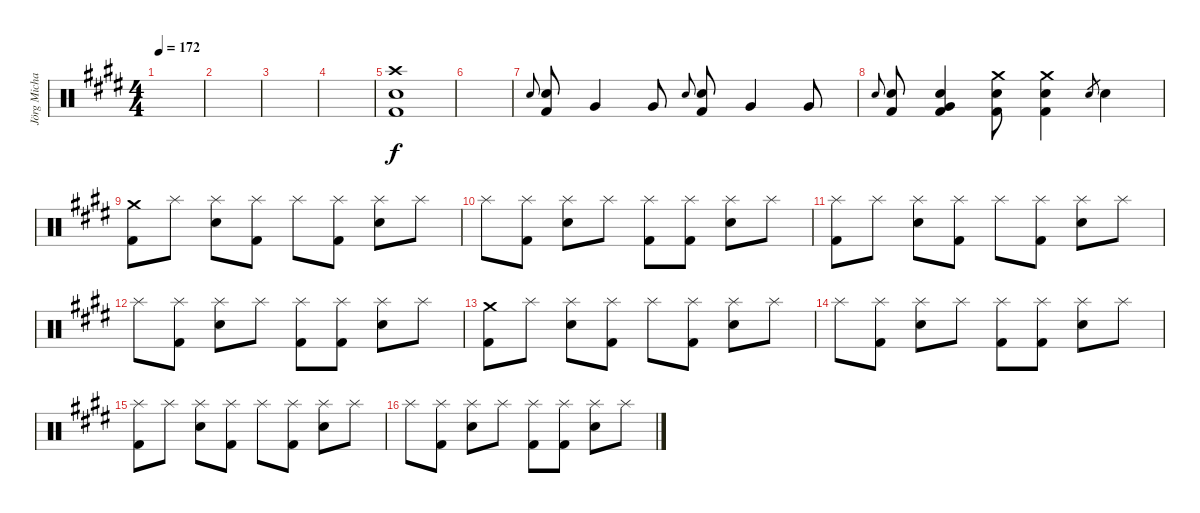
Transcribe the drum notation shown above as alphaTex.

\track ("Jörg Michael" "Jörg Micha") {instrument percussion}
\staff {score}
\articulation defaults
\ts (4 4)
\tempo 172
\clef neutral
\ks c#minor
|
|
|
|
("Crash high (hit)" "Snare (hit) 2" "Kick (hit) 2").1 |
|
"Electric Snare (hit)".8{gr onbeat} ("Electric Snare (hit)" "Kick (hit) 2").8 "Very Low Tom (hit)".4 "Very Low Tom (hit)".8 "Electric Snare (hit)".8{gr onbeat} ("Electric Snare (hit)" "Kick (hit) 2").8 "Very Low Tom (hit)".4 "Very Low Tom (hit)".8 |
"Electric Snare (hit)".8{gr onbeat} ("Electric Snare (hit)" "Kick (hit) 2").8 ("Very Low Tom (hit)" "Snare (hit) 2" "Kick (hit) 2").4 ("Crash medium (hit)" "Snare (hit) 2" "Kick (hit) 2").8 ("Crash medium (hit)" "Snare (hit) 2" "Kick (hit) 2").4 "Snare (hit) 2".8{gr} "Snare (hit) 2".4 |
("Crash medium (hit)" "Kick (hit) 2").8 "Splash (hit)".8 ("Splash (hit)" "Snare (hit) 2").8 ("Splash (hit)" "Kick (hit) 2").8 "Splash (hit)".8 ("Splash (hit)" "Kick (hit) 2").8 ("Splash (hit)" "Snare (hit) 2").8 "Splash (hit)".8 |
"Splash (hit)".8 ("Splash (hit)" "Kick (hit) 2").8 ("Splash (hit)" "Snare (hit) 2").8 "Splash (hit)".8 ("Splash (hit)" "Kick (hit) 2").8 ("Splash (hit)" "Kick (hit) 2").8 ("Splash (hit)" "Snare (hit) 2").8 "Splash (hit)".8 |
("Splash (hit)" "Kick (hit) 2").8 "Splash (hit)".8 ("Splash (hit)" "Snare (hit) 2").8 ("Splash (hit)" "Kick (hit) 2").8 "Splash (hit)".8 ("Splash (hit)" "Kick (hit) 2").8 ("Splash (hit)" "Snare (hit) 2").8 "Splash (hit)".8 |
"Splash (hit)".8 ("Splash (hit)" "Kick (hit) 2").8 ("Splash (hit)" "Snare (hit) 2").8 "Splash (hit)".8 ("Splash (hit)" "Kick (hit) 2").8 ("Splash (hit)" "Kick (hit) 2").8 ("Splash (hit)" "Snare (hit) 2").8 "Splash (hit)".8 |
("Crash medium (hit)" "Kick (hit) 2").8 "Splash (hit)".8 ("Splash (hit)" "Snare (hit) 2").8 ("Splash (hit)" "Kick (hit) 2").8 "Splash (hit)".8 ("Splash (hit)" "Kick (hit) 2").8 ("Splash (hit)" "Snare (hit) 2").8 "Splash (hit)".8 |
"Splash (hit)".8 ("Splash (hit)" "Kick (hit) 2").8 ("Splash (hit)" "Snare (hit) 2").8 "Splash (hit)".8 ("Splash (hit)" "Kick (hit) 2").8 ("Splash (hit)" "Kick (hit) 2").8 ("Splash (hit)" "Snare (hit) 2").8 "Splash (hit)".8 |
("Splash (hit)" "Kick (hit) 2").8 "Splash (hit)".8 ("Splash (hit)" "Snare (hit) 2").8 ("Splash (hit)" "Kick (hit) 2").8 "Splash (hit)".8 ("Splash (hit)" "Kick (hit) 2").8 ("Splash (hit)" "Snare (hit) 2").8 "Splash (hit)".8 |
"Splash (hit)".8 ("Splash (hit)" "Kick (hit) 2").8 ("Splash (hit)" "Snare (hit) 2").8 "Splash (hit)".8 ("Splash (hit)" "Kick (hit) 2").8 ("Splash (hit)" "Kick (hit) 2").8 ("Splash (hit)" "Snare (hit) 2").8 "Splash (hit)".8
